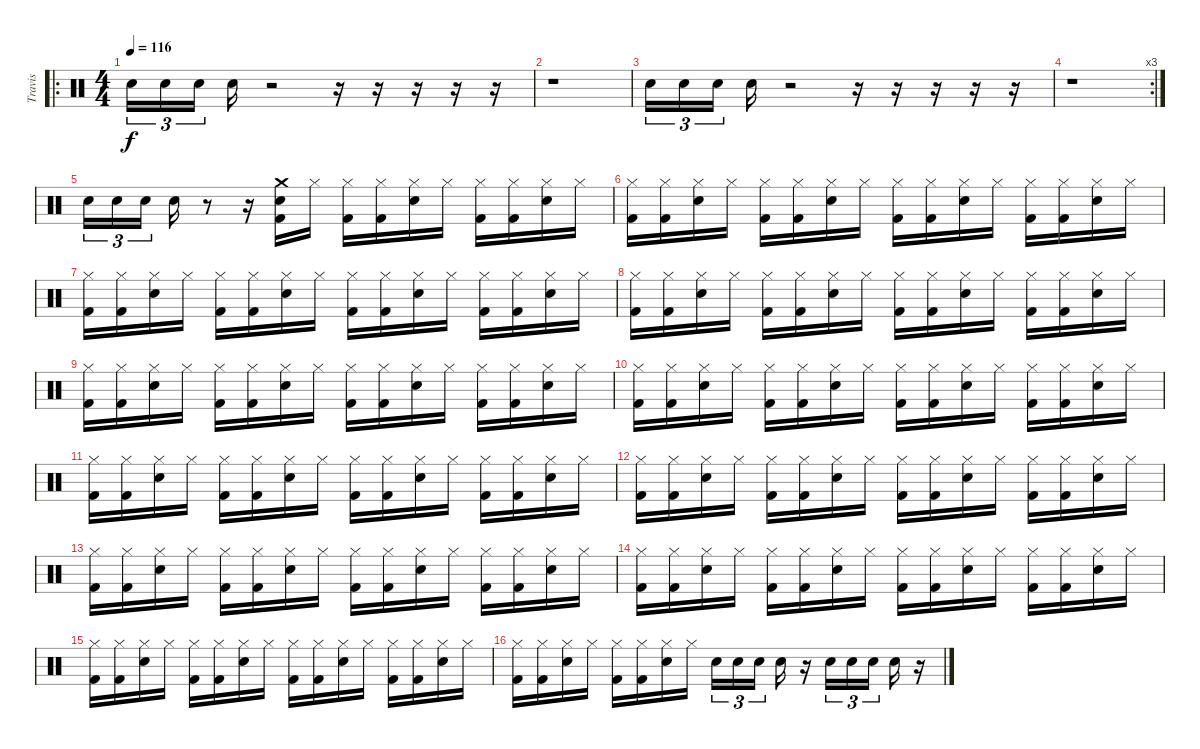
\track ("Travis" "Travis") {instrument percussion}
\staff {score}
\articulation defaults
\ro
\ts (4 4)
\tempo 116
\clef neutral
\ks c "Snare (hit) 2".16{tu (3 2) dy f} "Snare (hit) 2".16{tu (3 2)} "Snare (hit) 2".16{tu (3 2)} "Snare (hit) 2".16
r.2 r.16 r.16 r.16 r.16 r.16 |
r.1 |
"Snare (hit) 2".16{tu (3 2)} "Snare (hit) 2".16{tu (3 2)} "Snare (hit) 2".16{tu (3 2)} "Snare (hit) 2".16 r.2 r.16 r.16 r.16 r.16 r.16 |
\rc 3
r.1 |
"Snare (hit) 2".16{tu (3 2)} "Snare (hit) 2".16{tu (3 2)} "Snare (hit) 2".16{tu (3 2)} "Snare (hit) 2".16 r.8 r.16 ("Snare (hit) 2" "Crash medium (hit)" "Kick (hit) 2").16 "Hi-Hat (closed)".16 ("Hi-Hat (closed)" "Kick (hit) 2").16 ("Hi-Hat (closed)" "Kick (hit) 2").16 ("Hi-Hat (closed)" "Snare (hit) 2").16 "Hi-Hat (closed)".16 ("Hi-Hat (closed)" "Kick (hit) 2").16 ("Hi-Hat (closed)" "Kick (hit) 2").16 ("Hi-Hat (closed)" "Snare (hit) 2").16 "Hi-Hat (closed)".16 |
("Hi-Hat (closed)" "Kick (hit) 2").16 ("Hi-Hat (closed)" "Kick (hit) 2").16 ("Hi-Hat (closed)" "Snare (hit) 2").16 "Hi-Hat (closed)".16 ("Hi-Hat (closed)" "Kick (hit) 2").16 ("Hi-Hat (closed)" "Kick (hit) 2").16 ("Hi-Hat (closed)" "Snare (hit) 2").16 "Hi-Hat (closed)".16 ("Hi-Hat (closed)" "Kick (hit) 2").16 ("Hi-Hat (closed)" "Kick (hit) 2").16 ("Hi-Hat (closed)" "Snare (hit) 2").16 "Hi-Hat (closed)".16 ("Hi-Hat (closed)" "Kick (hit) 2").16 ("Hi-Hat (closed)" "Kick (hit) 2").16 ("Hi-Hat (closed)" "Snare (hit) 2").16 "Hi-Hat (closed)".16 |
("Hi-Hat (closed)" "Kick (hit) 2").16 ("Hi-Hat (closed)" "Kick (hit) 2").16 ("Hi-Hat (closed)" "Snare (hit) 2").16 "Hi-Hat (closed)".16 ("Hi-Hat (closed)" "Kick (hit) 2").16 ("Hi-Hat (closed)" "Kick (hit) 2").16 ("Hi-Hat (closed)" "Snare (hit) 2").16 "Hi-Hat (closed)".16 ("Hi-Hat (closed)" "Kick (hit) 2").16 ("Hi-Hat (closed)" "Kick (hit) 2").16 ("Hi-Hat (closed)" "Snare (hit) 2").16 "Hi-Hat (closed)".16 ("Hi-Hat (closed)" "Kick (hit) 2").16 ("Hi-Hat (closed)" "Kick (hit) 2").16 ("Hi-Hat (closed)" "Snare (hit) 2").16 "Hi-Hat (closed)".16 |
("Hi-Hat (closed)" "Kick (hit) 2").16 ("Hi-Hat (closed)" "Kick (hit) 2").16 ("Hi-Hat (closed)" "Snare (hit) 2").16 "Hi-Hat (closed)".16 ("Hi-Hat (closed)" "Kick (hit) 2").16 ("Hi-Hat (closed)" "Kick (hit) 2").16 ("Hi-Hat (closed)" "Snare (hit) 2").16 "Hi-Hat (closed)".16 ("Hi-Hat (closed)" "Kick (hit) 2").16 ("Hi-Hat (closed)" "Kick (hit) 2").16 ("Hi-Hat (closed)" "Snare (hit) 2").16 "Hi-Hat (closed)".16 ("Hi-Hat (closed)" "Kick (hit) 2").16 ("Hi-Hat (closed)" "Kick (hit) 2").16 ("Hi-Hat (closed)" "Snare (hit) 2").16 "Hi-Hat (closed)".16 |
("Hi-Hat (closed)" "Kick (hit) 2").16 ("Hi-Hat (closed)" "Kick (hit) 2").16 ("Hi-Hat (closed)" "Snare (hit) 2").16 "Hi-Hat (closed)".16 ("Hi-Hat (closed)" "Kick (hit) 2").16 ("Hi-Hat (closed)" "Kick (hit) 2").16 ("Hi-Hat (closed)" "Snare (hit) 2").16 "Hi-Hat (closed)".16 ("Hi-Hat (closed)" "Kick (hit) 2").16 ("Hi-Hat (closed)" "Kick (hit) 2").16 ("Hi-Hat (closed)" "Snare (hit) 2").16 "Hi-Hat (closed)".16 ("Hi-Hat (closed)" "Kick (hit) 2").16 ("Hi-Hat (closed)" "Kick (hit) 2").16 ("Hi-Hat (closed)" "Snare (hit) 2").16 "Hi-Hat (closed)".16 |
("Hi-Hat (closed)" "Kick (hit) 2").16 ("Hi-Hat (closed)" "Kick (hit) 2").16 ("Hi-Hat (closed)" "Snare (hit) 2").16 "Hi-Hat (closed)".16 ("Hi-Hat (closed)" "Kick (hit) 2").16 ("Hi-Hat (closed)" "Kick (hit) 2").16 ("Hi-Hat (closed)" "Snare (hit) 2").16 "Hi-Hat (closed)".16 ("Hi-Hat (closed)" "Kick (hit) 2").16 ("Hi-Hat (closed)" "Kick (hit) 2").16 ("Hi-Hat (closed)" "Snare (hit) 2").16 "Hi-Hat (closed)".16 ("Hi-Hat (closed)" "Kick (hit) 2").16 ("Hi-Hat (closed)" "Kick (hit) 2").16 ("Hi-Hat (closed)" "Snare (hit) 2").16 "Hi-Hat (closed)".16 |
("Hi-Hat (closed)" "Kick (hit) 2").16 ("Hi-Hat (closed)" "Kick (hit) 2").16 ("Hi-Hat (closed)" "Snare (hit) 2").16 "Hi-Hat (closed)".16 ("Hi-Hat (closed)" "Kick (hit) 2").16 ("Hi-Hat (closed)" "Kick (hit) 2").16 ("Hi-Hat (closed)" "Snare (hit) 2").16 "Hi-Hat (closed)".16 ("Hi-Hat (closed)" "Kick (hit) 2").16 ("Hi-Hat (closed)" "Kick (hit) 2").16 ("Hi-Hat (closed)" "Snare (hit) 2").16 "Hi-Hat (closed)".16 ("Hi-Hat (closed)" "Kick (hit) 2").16 ("Hi-Hat (closed)" "Kick (hit) 2").16 ("Hi-Hat (closed)" "Snare (hit) 2").16 "Hi-Hat (closed)".16 |
("Hi-Hat (closed)" "Kick (hit) 2").16 ("Hi-Hat (closed)" "Kick (hit) 2").16 ("Hi-Hat (closed)" "Snare (hit) 2").16 "Hi-Hat (closed)".16 ("Hi-Hat (closed)" "Kick (hit) 2").16 ("Hi-Hat (closed)" "Kick (hit) 2").16 ("Hi-Hat (closed)" "Snare (hit) 2").16 "Hi-Hat (closed)".16 ("Hi-Hat (closed)" "Kick (hit) 2").16 ("Hi-Hat (closed)" "Kick (hit) 2").16 ("Hi-Hat (closed)" "Snare (hit) 2").16 "Hi-Hat (closed)".16 ("Hi-Hat (closed)" "Kick (hit) 2").16 ("Hi-Hat (closed)" "Kick (hit) 2").16 ("Hi-Hat (closed)" "Snare (hit) 2").16 "Hi-Hat (closed)".16 |
("Hi-Hat (closed)" "Kick (hit) 2").16 ("Hi-Hat (closed)" "Kick (hit) 2").16 ("Hi-Hat (closed)" "Snare (hit) 2").16 "Hi-Hat (closed)".16 ("Hi-Hat (closed)" "Kick (hit) 2").16 ("Hi-Hat (closed)" "Kick (hit) 2").16 ("Hi-Hat (closed)" "Snare (hit) 2").16 "Hi-Hat (closed)".16 ("Hi-Hat (closed)" "Kick (hit) 2").16 ("Hi-Hat (closed)" "Kick (hit) 2").16 ("Hi-Hat (closed)" "Snare (hit) 2").16 "Hi-Hat (closed)".16 ("Hi-Hat (closed)" "Kick (hit) 2").16 ("Hi-Hat (closed)" "Kick (hit) 2").16 ("Hi-Hat (closed)" "Snare (hit) 2").16 "Hi-Hat (closed)".16 |
("Hi-Hat (closed)" "Kick (hit) 2").16 ("Hi-Hat (closed)" "Kick (hit) 2").16 ("Hi-Hat (closed)" "Snare (hit) 2").16 "Hi-Hat (closed)".16 ("Hi-Hat (closed)" "Kick (hit) 2").16 ("Hi-Hat (closed)" "Kick (hit) 2").16 ("Hi-Hat (closed)" "Snare (hit) 2").16 "Hi-Hat (closed)".16 ("Hi-Hat (closed)" "Kick (hit) 2").16 ("Hi-Hat (closed)" "Kick (hit) 2").16 ("Hi-Hat (closed)" "Snare (hit) 2").16 "Hi-Hat (closed)".16 ("Hi-Hat (closed)" "Kick (hit) 2").16 ("Hi-Hat (closed)" "Kick (hit) 2").16 ("Hi-Hat (closed)" "Snare (hit) 2").16 "Hi-Hat (closed)".16 |
("Hi-Hat (closed)" "Kick (hit) 2").16 ("Hi-Hat (closed)" "Kick (hit) 2").16 ("Hi-Hat (closed)" "Snare (hit) 2").16 "Hi-Hat (closed)".16 ("Hi-Hat (closed)" "Kick (hit) 2").16 ("Hi-Hat (closed)" "Kick (hit) 2").16 ("Hi-Hat (closed)" "Snare (hit) 2").16 "Hi-Hat (closed)".16 ("Hi-Hat (closed)" "Kick (hit) 2").16 ("Hi-Hat (closed)" "Kick (hit) 2").16 ("Hi-Hat (closed)" "Snare (hit) 2").16 "Hi-Hat (closed)".16 ("Hi-Hat (closed)" "Kick (hit) 2").16 ("Hi-Hat (closed)" "Kick (hit) 2").16 ("Hi-Hat (closed)" "Snare (hit) 2").16 "Hi-Hat (closed)".16 |
("Hi-Hat (closed)" "Kick (hit) 2").16 ("Hi-Hat (closed)" "Kick (hit) 2").16 ("Hi-Hat (closed)" "Snare (hit) 2").16 "Hi-Hat (closed)".16 ("Hi-Hat (closed)" "Kick (hit) 2").16 ("Hi-Hat (closed)" "Kick (hit) 2").16 ("Hi-Hat (closed)" "Snare (hit) 2").16 "Hi-Hat (closed)".16 "Snare (hit) 2".16{tu (3 2)} "Snare (hit) 2".16{tu (3 2)} "Snare (hit) 2".16{tu (3 2)} "Snare (hit) 2".16 r.16 "Snare (hit) 2".16{tu (3 2)} "Snare (hit) 2".16{tu (3 2)} "Snare (hit) 2".16{tu (3 2)} "Snare (hit) 2".16 r.16
